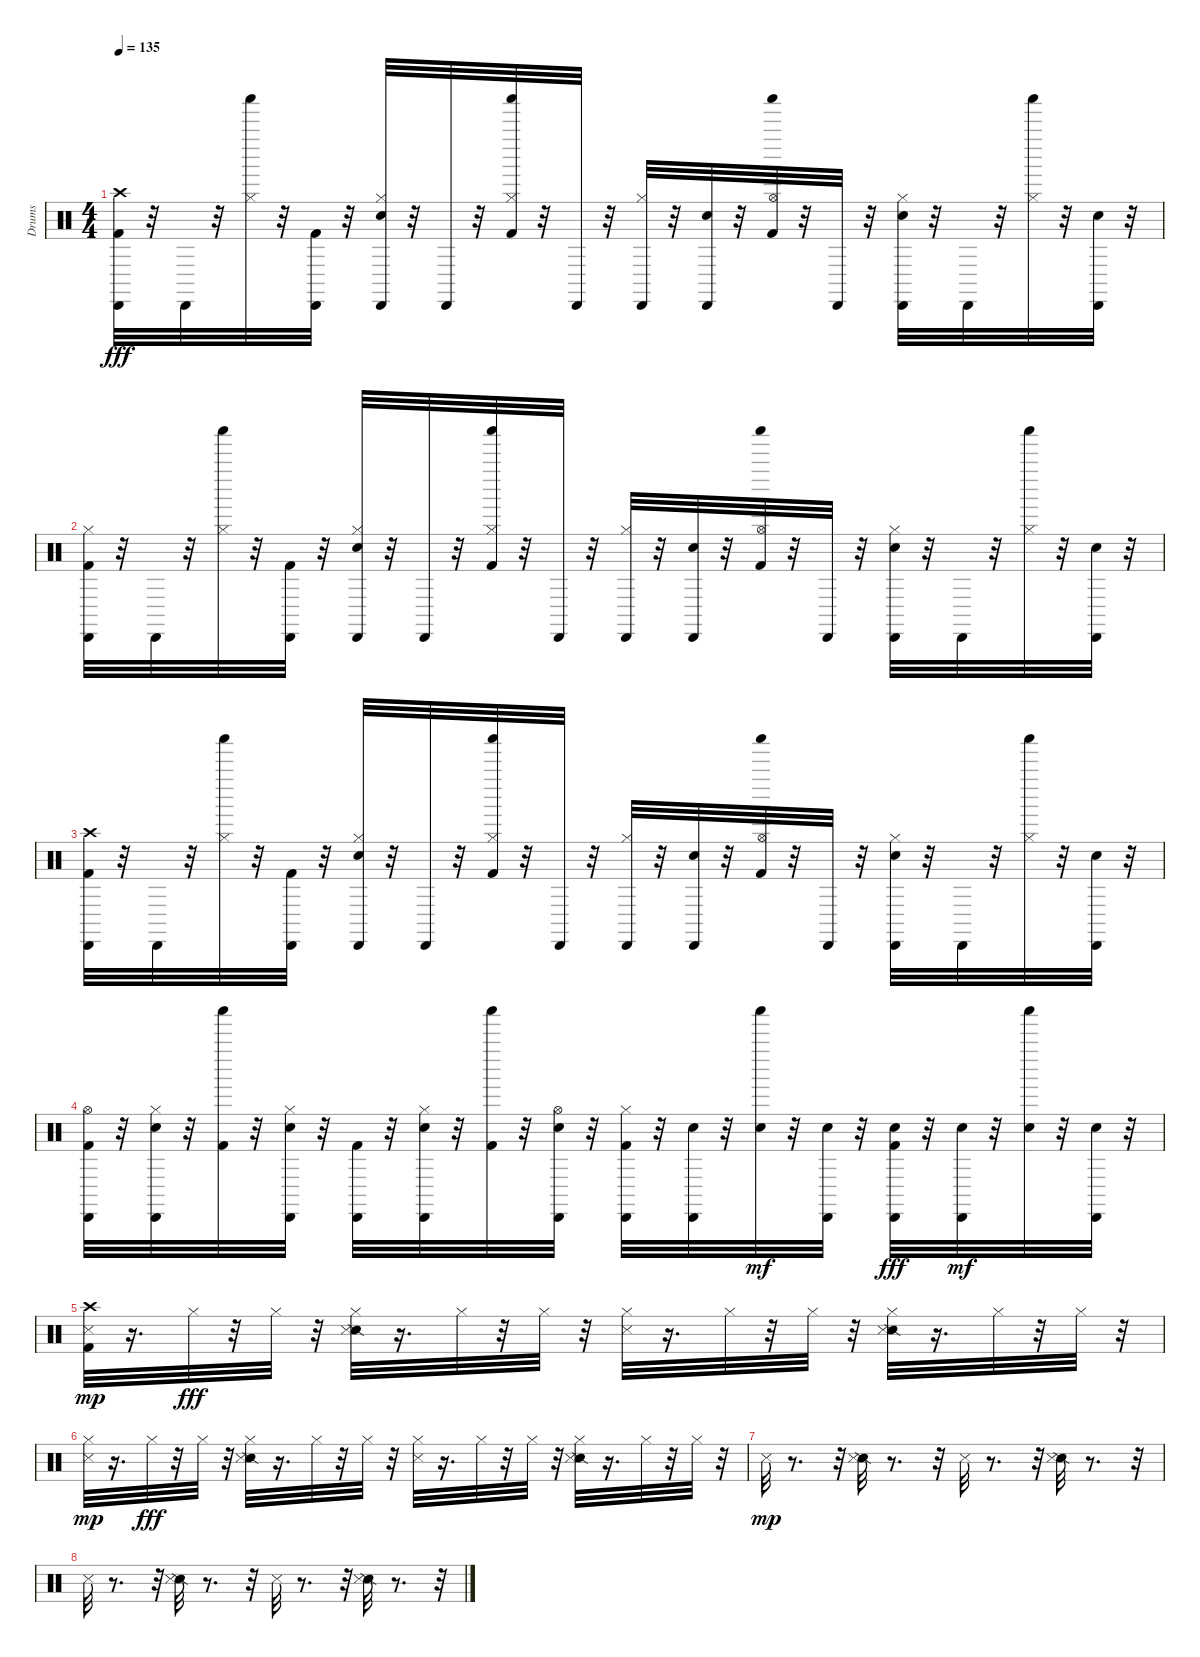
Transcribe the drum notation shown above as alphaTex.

\track ("Drums" "Drums") {instrument percussion}
\staff {score}
\articulation defaults
\ts (4 4)
\tempo 135
\clef neutral
\ks c
("Crash high (hit)" "Kick (hit) 2" "Cabasa (hit)").32{dy fff} r.32 "Cabasa (hit)".32 r.32 ("Shaker (hit)" "Hi-Hat (closed)").32 r.32 ("Kick (hit) 2" "Cabasa (hit)").32 r.32 ("Snare (hit) 2" "Hi-Hat (closed)" "Cabasa (hit)").32 r.32 "Cabasa (hit)".32 r.32 ("Kick (hit) 2" "Shaker (hit)" "Hi-Hat (closed)").32 r.32 "Cabasa (hit)".32 r.32 ("Hi-Hat (closed)" "Cabasa (hit)").32 r.32 ("Snare (hit) 2" "Cabasa (hit)").32 r.32 ("Kick (hit) 2" "Shaker (hit)" "Hi-Hat (open)").32 r.32 "Cabasa (hit)".32 r.32 ("Snare (hit) 2" "Hi-Hat (closed)" "Cabasa (hit)").32 r.32 "Cabasa (hit)".32 r.32 ("Shaker (hit)" "Hi-Hat (closed)").32 r.32 ("Snare (hit) 2" "Cabasa (hit)").32 r.32 |
("Hi-Hat (closed)" "Kick (hit) 2" "Cabasa (hit)").32 r.32 "Cabasa (hit)".32 r.32 ("Shaker (hit)" "Hi-Hat (closed)").32 r.32 ("Kick (hit) 2" "Cabasa (hit)").32 r.32 ("Snare (hit) 2" "Hi-Hat (closed)" "Cabasa (hit)").32 r.32 "Cabasa (hit)".32 r.32 ("Kick (hit) 2" "Shaker (hit)" "Hi-Hat (closed)").32 r.32 "Cabasa (hit)".32 r.32 ("Hi-Hat (closed)" "Cabasa (hit)").32 r.32 ("Snare (hit) 2" "Cabasa (hit)").32 r.32 ("Kick (hit) 2" "Shaker (hit)" "Hi-Hat (open)").32 r.32 "Cabasa (hit)".32 r.32 ("Snare (hit) 2" "Hi-Hat (closed)" "Cabasa (hit)").32 r.32 "Cabasa (hit)".32 r.32 ("Shaker (hit)" "Hi-Hat (closed)").32 r.32 ("Snare (hit) 2" "Cabasa (hit)").32 r.32 |
("Crash high (hit)" "Kick (hit) 2" "Cabasa (hit)").32 r.32 "Cabasa (hit)".32 r.32 ("Shaker (hit)" "Hi-Hat (closed)").32 r.32 ("Kick (hit) 2" "Cabasa (hit)").32 r.32 ("Snare (hit) 2" "Hi-Hat (closed)" "Cabasa (hit)").32 r.32 "Cabasa (hit)".32 r.32 ("Kick (hit) 2" "Shaker (hit)" "Hi-Hat (closed)").32 r.32 "Cabasa (hit)".32 r.32 ("Hi-Hat (closed)" "Cabasa (hit)").32 r.32 ("Snare (hit) 2" "Cabasa (hit)").32 r.32 ("Kick (hit) 2" "Shaker (hit)" "Hi-Hat (open)").32 r.32 "Cabasa (hit)".32 r.32 ("Snare (hit) 2" "Hi-Hat (closed)" "Cabasa (hit)").32 r.32 "Cabasa (hit)".32 r.32 ("Shaker (hit)" "Hi-Hat (closed)").32 r.32 ("Snare (hit) 2" "Cabasa (hit)").32 r.32 |
("Hi-Hat (open)" "Kick (hit) 2" "Cabasa (hit)").32 r.32 ("Cabasa (hit)" "Snare (hit) 2" "Hi-Hat (closed)").32 r.32 ("Shaker (hit)" "Kick (hit) 2").32 r.32 ("Cabasa (hit)" "Snare (hit) 2" "Hi-Hat (closed)").32 r.32 ("Cabasa (hit)" "Kick (hit) 2").32 r.32 ("Cabasa (hit)" "Snare (hit) 2" "Hi-Hat (closed)").32 r.32 ("Shaker (hit)" "Kick (hit) 2").32 r.32 ("Cabasa (hit)" "Snare (hit) 2" "Hi-Hat (open)").32 r.32 ("Cabasa (hit)" "Kick (hit) 2" "Hi-Hat (closed)").32 r.32 ("Snare (hit) 2" "Cabasa (hit)").32 r.32 ("Shaker (hit)" "Snare (hit) 2").32{dy mf} r.32 ("Cabasa (hit)" "Snare (hit) 2").32 r.32 ("Snare (hit) 2" "Cabasa (hit)" "Kick (hit) 2").32{dy fff} r.32 ("Cabasa (hit)" "Snare (hit) 2").32{dy mf} r.32 ("Shaker (hit)" "Snare (hit) 2").32 r.32 ("Cabasa (hit)" "Snare (hit) 2").32 r.32 |
("Kick (hit) 2" "Crash high (hit)" "Metronome (hit)").32{dy mp} r.16{d} "Hi-Hat (closed)".32{dy fff} r.32 "Hi-Hat (closed)".32 r.32 ("Snare (side stick) 2" "Metronome (hit)" "Hi-Hat (closed)").32 r.16{d} "Hi-Hat (closed)".32 r.32 "Hi-Hat (closed)".32 r.32 ("Metronome (hit)" "Hi-Hat (closed)").32 r.16{d} "Hi-Hat (closed)".32 r.32 "Hi-Hat (closed)".32 r.32 ("Snare (side stick) 2" "Metronome (hit)" "Hi-Hat (closed)").32 r.16{d} "Hi-Hat (closed)".32 r.32 "Hi-Hat (closed)".32 r.32 |
("Hi-Hat (closed)" "Metronome (hit)").32{dy mp} r.16{d} "Hi-Hat (closed)".32{dy fff} r.32 "Hi-Hat (closed)".32 r.32 ("Snare (side stick) 2" "Metronome (hit)" "Hi-Hat (closed)").32 r.16{d} "Hi-Hat (closed)".32 r.32 "Hi-Hat (closed)".32 r.32 ("Metronome (hit)" "Hi-Hat (closed)").32 r.16{d} "Hi-Hat (closed)".32 r.32 "Hi-Hat (closed)".32 r.32 ("Snare (side stick) 2" "Metronome (hit)" "Hi-Hat (closed)").32 r.16{d} "Hi-Hat (closed)".32 r.32 "Hi-Hat (closed)".32 r.32 |
"Metronome (hit)".32{dy mp} r.8{d} r.32 ("Snare (side stick) 2" "Metronome (hit)").32 r.8{d} r.32 "Metronome (hit)".32 r.8{d} r.32 ("Snare (side stick) 2" "Metronome (hit)").32 r.8{d} r.32 |
"Metronome (hit)".32 r.8{d} r.32 ("Snare (side stick) 2" "Metronome (hit)").32 r.8{d} r.32 "Metronome (hit)".32 r.8{d} r.32 ("Snare (side stick) 2" "Metronome (hit)").32 r.8{d} r.32
